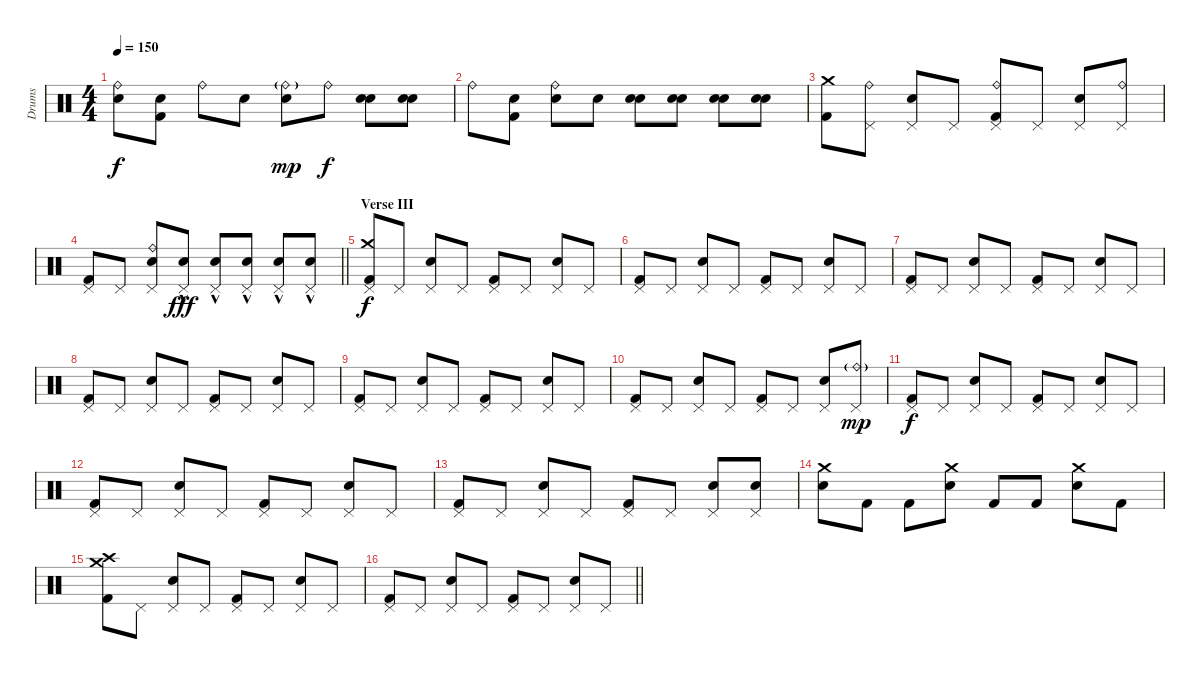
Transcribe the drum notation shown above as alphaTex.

\track ("Drums" "Drums") {instrument percussion}
\staff {score}
\articulation defaults
\ts (4 4)
\tempo 150
\clef neutral
\ks c
("Ride (bell)" "Electric Snare (hit)").8{dy f} ("Snare (hit)" "Kick (hit) 2").8 "Ride (bell)".8 "Snare (hit)".8 ("Ride (bell)"{g} "Electric Snare (hit)").8{dy mp} "Ride (bell)".8{dy f} ("Snare (hit)" "Electric Snare (hit)").8 ("Snare (hit)" "Electric Snare (hit)").8 |
"Ride (bell)".8 ("Snare (hit)" "Kick (hit) 2").8 ("Ride (bell)" "Electric Snare (hit)").8 "Snare (hit)".8 ("Snare (hit)" "Electric Snare (hit)").8 ("Snare (hit)" "Electric Snare (hit)").8 ("Snare (hit)" "Electric Snare (hit)").8 ("Snare (hit)" "Electric Snare (hit)").8 |
("Crash medium (hit)" "Kick (hit) 2").8 ("Ride (bell)" "Pedal Hi-Hat (hit)").8 ("Pedal Hi-Hat (hit)" "Electric Snare (hit)").8 "Pedal Hi-Hat (hit)".8 ("Ride (bell)" "Pedal Hi-Hat (hit)" "Kick (hit) 2").8 "Pedal Hi-Hat (hit)".8 ("Pedal Hi-Hat (hit)" "Electric Snare (hit)").8 ("Ride (bell)" "Pedal Hi-Hat (hit)").8 |
\barLineRight lightlight
("Pedal Hi-Hat (hit)" "Kick (hit) 2").8 "Pedal Hi-Hat (hit)".8 ("Ride (bell)" "Pedal Hi-Hat (hit)" "Electric Snare (hit)").8 ("Pedal Hi-Hat (hit)" "Electric Snare (hit)"{hac}).8{dy fff} ("Pedal Hi-Hat (hit)" "Electric Snare (hit)"{hac}).8 ("Pedal Hi-Hat (hit)" "Electric Snare (hit)"{hac}).8 ("Pedal Hi-Hat (hit)" "Electric Snare (hit)"{hac}).8 ("Pedal Hi-Hat (hit)" "Electric Snare (hit)"{hac}).8 |
\section ("" "Verse III")
("Crash medium (hit)" "Pedal Hi-Hat (hit)" "Kick (hit) 2").8{dy f} "Pedal Hi-Hat (hit)".8 ("Pedal Hi-Hat (hit)" "Electric Snare (hit)").8 "Pedal Hi-Hat (hit)".8 ("Pedal Hi-Hat (hit)" "Kick (hit) 2").8 "Pedal Hi-Hat (hit)".8 ("Pedal Hi-Hat (hit)" "Electric Snare (hit)").8 "Pedal Hi-Hat (hit)".8 |
("Pedal Hi-Hat (hit)" "Kick (hit) 2").8 "Pedal Hi-Hat (hit)".8 ("Pedal Hi-Hat (hit)" "Electric Snare (hit)").8 "Pedal Hi-Hat (hit)".8 ("Pedal Hi-Hat (hit)" "Kick (hit) 2").8 "Pedal Hi-Hat (hit)".8 ("Pedal Hi-Hat (hit)" "Electric Snare (hit)").8 "Pedal Hi-Hat (hit)".8 |
("Pedal Hi-Hat (hit)" "Kick (hit) 2").8 "Pedal Hi-Hat (hit)".8 ("Pedal Hi-Hat (hit)" "Electric Snare (hit)").8 "Pedal Hi-Hat (hit)".8 ("Pedal Hi-Hat (hit)" "Kick (hit) 2").8 "Pedal Hi-Hat (hit)".8 ("Pedal Hi-Hat (hit)" "Electric Snare (hit)").8 "Pedal Hi-Hat (hit)".8 |
("Pedal Hi-Hat (hit)" "Kick (hit) 2").8 "Pedal Hi-Hat (hit)".8 ("Pedal Hi-Hat (hit)" "Electric Snare (hit)").8 "Pedal Hi-Hat (hit)".8 ("Pedal Hi-Hat (hit)" "Kick (hit) 2").8 "Pedal Hi-Hat (hit)".8 ("Pedal Hi-Hat (hit)" "Electric Snare (hit)").8 "Pedal Hi-Hat (hit)".8 |
("Pedal Hi-Hat (hit)" "Kick (hit) 2").8 "Pedal Hi-Hat (hit)".8 ("Pedal Hi-Hat (hit)" "Electric Snare (hit)").8 "Pedal Hi-Hat (hit)".8 ("Pedal Hi-Hat (hit)" "Kick (hit) 2").8 "Pedal Hi-Hat (hit)".8 ("Pedal Hi-Hat (hit)" "Electric Snare (hit)").8 "Pedal Hi-Hat (hit)".8 |
("Pedal Hi-Hat (hit)" "Kick (hit) 2").8 "Pedal Hi-Hat (hit)".8 ("Pedal Hi-Hat (hit)" "Electric Snare (hit)").8 "Pedal Hi-Hat (hit)".8 ("Pedal Hi-Hat (hit)" "Kick (hit) 2").8 "Pedal Hi-Hat (hit)".8 ("Pedal Hi-Hat (hit)" "Electric Snare (hit)").8 ("Ride (bell)"{g} "Pedal Hi-Hat (hit)").8{dy mp} |
("Pedal Hi-Hat (hit)" "Kick (hit) 2").8{dy f} "Pedal Hi-Hat (hit)".8 ("Pedal Hi-Hat (hit)" "Electric Snare (hit)").8 "Pedal Hi-Hat (hit)".8 ("Pedal Hi-Hat (hit)" "Kick (hit) 2").8 "Pedal Hi-Hat (hit)".8 ("Pedal Hi-Hat (hit)" "Electric Snare (hit)").8 "Pedal Hi-Hat (hit)".8 |
("Pedal Hi-Hat (hit)" "Kick (hit) 2").8 "Pedal Hi-Hat (hit)".8 ("Pedal Hi-Hat (hit)" "Electric Snare (hit)").8 "Pedal Hi-Hat (hit)".8 ("Pedal Hi-Hat (hit)" "Kick (hit) 2").8 "Pedal Hi-Hat (hit)".8 ("Pedal Hi-Hat (hit)" "Electric Snare (hit)").8 "Pedal Hi-Hat (hit)".8 |
("Pedal Hi-Hat (hit)" "Kick (hit) 2").8 "Pedal Hi-Hat (hit)".8 ("Pedal Hi-Hat (hit)" "Electric Snare (hit)").8 "Pedal Hi-Hat (hit)".8 ("Pedal Hi-Hat (hit)" "Kick (hit) 2").8 "Pedal Hi-Hat (hit)".8 ("Pedal Hi-Hat (hit)" "Electric Snare (hit)").8 ("Pedal Hi-Hat (hit)" "Snare (hit)").8 |
("Crash medium (hit)" "Electric Snare (hit)").8 "Kick (hit) 2".8 "Kick (hit) 2".8 ("Crash medium (hit)" "Electric Snare (hit)").8 "Kick (hit) 2".8 "Kick (hit) 2".8 ("Crash medium (hit)" "Electric Snare (hit)").8 "Kick (hit) 2".8 |
("Crash high (hit)" "Crash medium (hit)" "Kick (hit) 2").8 "Pedal Hi-Hat (hit)".8 ("Pedal Hi-Hat (hit)" "Electric Snare (hit)").8 "Pedal Hi-Hat (hit)".8 ("Pedal Hi-Hat (hit)" "Kick (hit) 2").8 "Pedal Hi-Hat (hit)".8 ("Pedal Hi-Hat (hit)" "Electric Snare (hit)").8 "Pedal Hi-Hat (hit)".8 |
\barLineRight lightlight
("Pedal Hi-Hat (hit)" "Kick (hit) 2").8 "Pedal Hi-Hat (hit)".8 ("Pedal Hi-Hat (hit)" "Electric Snare (hit)").8 "Pedal Hi-Hat (hit)".8 ("Pedal Hi-Hat (hit)" "Kick (hit) 2").8 "Pedal Hi-Hat (hit)".8 ("Pedal Hi-Hat (hit)" "Electric Snare (hit)").8 "Pedal Hi-Hat (hit)".8
